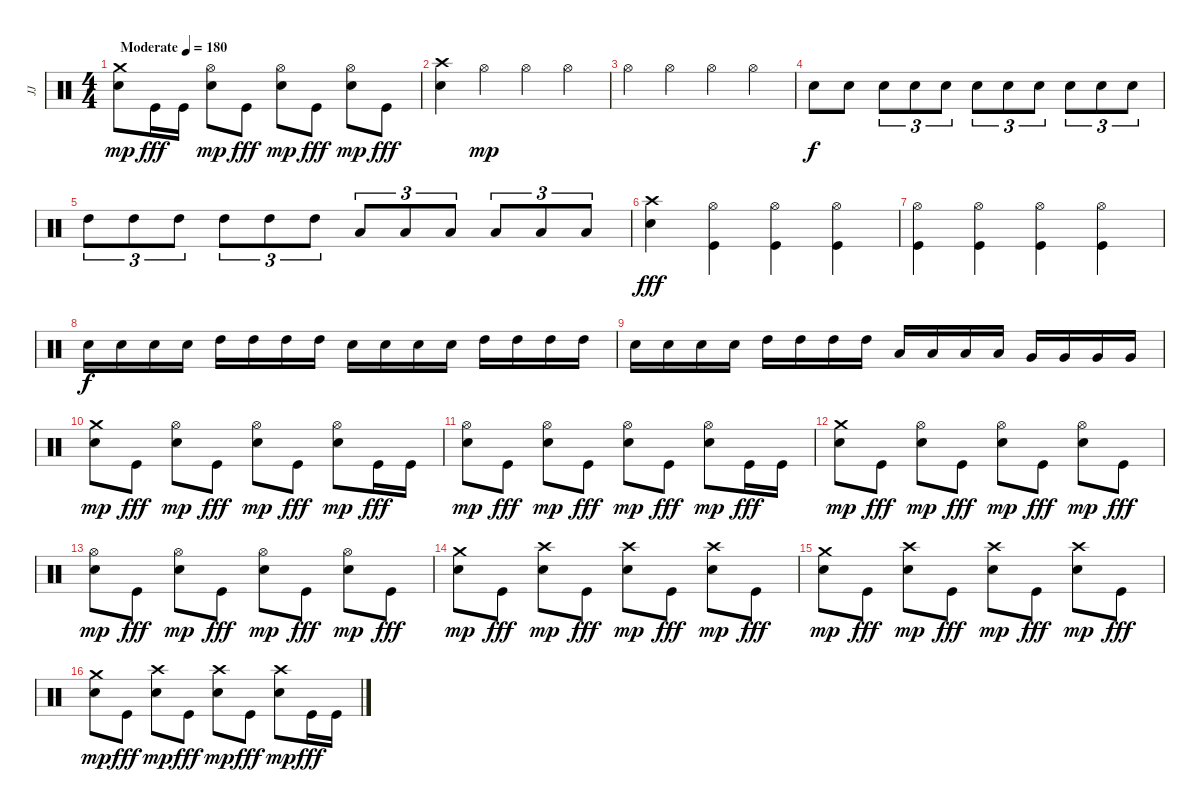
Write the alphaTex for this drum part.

\track ("JJ" "JJ") {mute instrument percussion}
\staff {score}
\articulation defaults
\ts (4 4)
\tempo (180 "Moderate")
\clef neutral
\ks c
("Crash medium (hit)" "Snare (hit) 2").8{dy mp} "Kick (hit)".16{dy fff} "Kick (hit)".16 ("Hi-Hat (open)" "Snare (hit) 2").8{dy mp} "Kick (hit)".8{dy fff} ("Hi-Hat (open)" "Snare (hit) 2").8{dy mp} "Kick (hit)".8{dy fff} ("Hi-Hat (open)" "Snare (hit) 2").8{dy mp} "Kick (hit)".8{dy fff} |
("Crash high (hit)" "Snare (hit) 2").4 "Hi-Hat (open)".4{dy mp} "Hi-Hat (open)".4 "Hi-Hat (open)".4 |
"Hi-Hat (open)".4 "Hi-Hat (open)".4 "Hi-Hat (open)".4 "Hi-Hat (open)".4 |
"Snare (hit) 2".8{dy f} "Snare (hit) 2".8 "Snare (hit) 2".8{tu (3 2)} "Snare (hit) 2".8{tu (3 2)} "Snare (hit) 2".8{tu (3 2)} "Snare (hit) 2".8{tu (3 2)} "Snare (hit) 2".8{tu (3 2)} "Snare (hit) 2".8{tu (3 2)} "Snare (hit) 2".8{tu (3 2)} "Snare (hit) 2".8{tu (3 2)} "Snare (hit) 2".8{tu (3 2)} |
"High Tom (hit)".8{tu (3 2)} "High Tom (hit)".8{tu (3 2)} "High Tom (hit)".8{tu (3 2)} "High Tom (hit)".8{tu (3 2)} "High Tom (hit)".8{tu (3 2)} "High Tom (hit)".8{tu (3 2)} "Low Tom (hit)".8{tu (3 2)} "Low Tom (hit)".8{tu (3 2)} "Low Tom (hit)".8{tu (3 2)} "Low Tom (hit)".8{tu (3 2)} "Low Tom (hit)".8{tu (3 2)} "Low Tom (hit)".8{tu (3 2)} |
("Crash high (hit)" "Snare (hit) 2").4{dy fff} ("Hi-Hat (open)" "Kick (hit)").4 ("Hi-Hat (open)" "Kick (hit)").4 ("Hi-Hat (open)" "Kick (hit)").4 |
("Hi-Hat (open)" "Kick (hit)").4 ("Hi-Hat (open)" "Kick (hit)").4 ("Hi-Hat (open)" "Kick (hit)").4 ("Hi-Hat (open)" "Kick (hit)").4 |
"Snare (hit) 2".16{dy f} "Snare (hit) 2".16 "Snare (hit) 2".16 "Snare (hit) 2".16 "High Tom (hit)".16 "High Tom (hit)".16 "High Tom (hit)".16 "High Tom (hit)".16 "Snare (hit) 2".16 "Snare (hit) 2".16 "Snare (hit) 2".16 "Snare (hit) 2".16 "High Tom (hit)".16 "High Tom (hit)".16 "High Tom (hit)".16 "High Tom (hit)".16 |
"Snare (hit) 2".16 "Snare (hit) 2".16 "Snare (hit) 2".16 "Snare (hit) 2".16 "High Tom (hit)".16 "High Tom (hit)".16 "High Tom (hit)".16 "High Tom (hit)".16 "Low Tom (hit)".16 "Low Tom (hit)".16 "Low Tom (hit)".16 "Low Tom (hit)".16 "Very Low Tom (hit)".16 "Very Low Tom (hit)".16 "Very Low Tom (hit)".16 "Very Low Tom (hit)".16 |
("Crash medium (hit)" "Snare (hit) 2").8{dy mp} "Kick (hit)".8{dy fff} ("Hi-Hat (open)" "Snare (hit) 2").8{dy mp} "Kick (hit)".8{dy fff} ("Hi-Hat (open)" "Snare (hit) 2").8{dy mp} "Kick (hit)".8{dy fff} ("Hi-Hat (open)" "Snare (hit) 2").8{dy mp} "Kick (hit)".16{dy fff} "Kick (hit)".16 |
("Hi-Hat (open)" "Snare (hit) 2").8{dy mp} "Kick (hit)".8{dy fff} ("Hi-Hat (open)" "Snare (hit) 2").8{dy mp} "Kick (hit)".8{dy fff} ("Hi-Hat (open)" "Snare (hit) 2").8{dy mp} "Kick (hit)".8{dy fff} ("Hi-Hat (open)" "Snare (hit) 2").8{dy mp} "Kick (hit)".16{dy fff} "Kick (hit)".16 |
("Crash medium (hit)" "Snare (hit) 2").8{dy mp} "Kick (hit)".8{dy fff} ("Hi-Hat (open)" "Snare (hit) 2").8{dy mp} "Kick (hit)".8{dy fff} ("Hi-Hat (open)" "Snare (hit) 2").8{dy mp} "Kick (hit)".8{dy fff} ("Hi-Hat (open)" "Snare (hit) 2").8{dy mp} "Kick (hit)".8{dy fff} |
("Hi-Hat (open)" "Snare (hit) 2").8{dy mp} "Kick (hit)".8{dy fff} ("Hi-Hat (open)" "Snare (hit) 2").8{dy mp} "Kick (hit)".8{dy fff} ("Hi-Hat (open)" "Snare (hit) 2").8{dy mp} "Kick (hit)".8{dy fff} ("Hi-Hat (open)" "Snare (hit) 2").8{dy mp} "Kick (hit)".8{dy fff} |
("Crash medium (hit)" "Snare (hit) 2").8{dy mp} "Kick (hit)".8{dy fff} ("Crash high (hit)" "Snare (hit) 2").8{dy mp} "Kick (hit)".8{dy fff} ("Crash high (hit)" "Snare (hit) 2").8{dy mp} "Kick (hit)".8{dy fff} ("Crash high (hit)" "Snare (hit) 2").8{dy mp} "Kick (hit)".8{dy fff} |
("Crash medium (hit)" "Snare (hit) 2").8{dy mp} "Kick (hit)".8{dy fff} ("Crash high (hit)" "Snare (hit) 2").8{dy mp} "Kick (hit)".8{dy fff} ("Crash high (hit)" "Snare (hit) 2").8{dy mp} "Kick (hit)".8{dy fff} ("Crash high (hit)" "Snare (hit) 2").8{dy mp} "Kick (hit)".8{dy fff} |
("Crash medium (hit)" "Snare (hit) 2").8{dy mp} "Kick (hit)".8{dy fff} ("Crash high (hit)" "Snare (hit) 2").8{dy mp} "Kick (hit)".8{dy fff} ("Crash high (hit)" "Snare (hit) 2").8{dy mp} "Kick (hit)".8{dy fff} ("Crash high (hit)" "Snare (hit) 2").8{dy mp} "Kick (hit)".16{dy fff} "Kick (hit)".16
